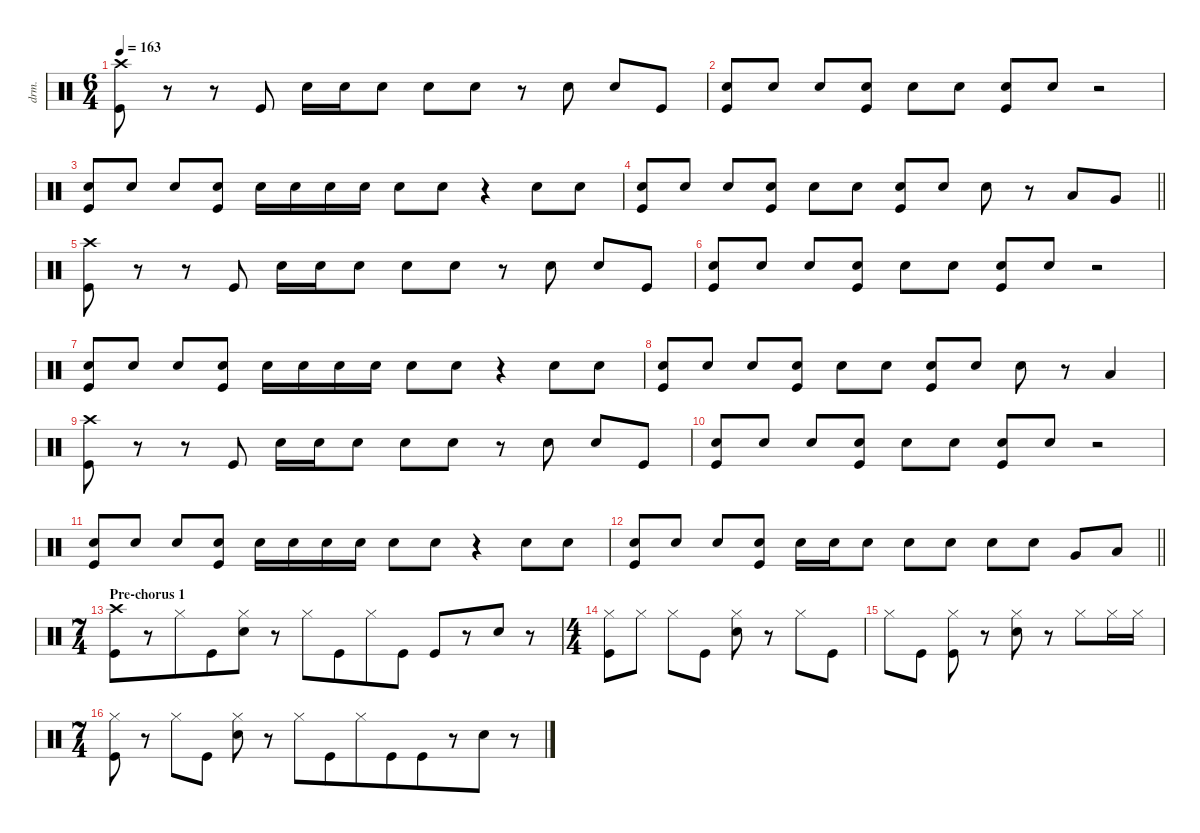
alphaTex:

\defaultSystemsLayout 4
\hideDynamics
\bracketExtendMode nobrackets
\otherSystemsTrackNameOrientation horizontal
\track ("Drums" "drm.") {instrument percussion}
\staff {score}
\articulation defaults
\ts (6 4)
\tempo 163
\clef neutral
\ks c
("Crash high (hit)" "Kick (hit)").8{dy f} r.8 r.8 "Kick (hit)".8 "Snare (hit) 2".16{dy p} "Snare (hit) 2".16 "Snare (hit) 2".8 "Snare (hit) 2".8 "Snare (hit) 2".8{dy f} r.8 "Snare (hit) 2".8{dy p} "Snare (hit) 2".8 "Kick (hit)".8{dy f} |
("Snare (hit) 2" "Kick (hit)").8{dy p} "Snare (hit) 2".8 "Snare (hit) 2".8 ("Snare (hit) 2" "Kick (hit)").8 "Snare (hit) 2".8 "Snare (hit) 2".8 ("Snare (hit) 2" "Kick (hit)").8 "Snare (hit) 2".8{dy f} r.2 |
("Snare (hit) 2" "Kick (hit)").8{dy p} "Snare (hit) 2".8 "Snare (hit) 2".8 ("Snare (hit) 2" "Kick (hit)").8 "Snare (hit) 2".16 "Snare (hit) 2".16 "Snare (hit) 2".16 "Snare (hit) 2".16 "Snare (hit) 2".8 "Snare (hit) 2".8{dy f} r.4 "Snare (hit) 2".8{dy p} "Snare (hit) 2".8 |
\barLineRight lightlight
("Snare (hit) 2" "Kick (hit)").8 "Snare (hit) 2".8 "Snare (hit) 2".8 ("Snare (hit) 2" "Kick (hit)").8 "Snare (hit) 2".8 "Snare (hit) 2".8 ("Snare (hit) 2" "Kick (hit)").8 "Snare (hit) 2".8{dy f} "Snare (hit) 2".8 r.8 "Low Tom (hit)".8{dy p} "Very Low Tom (hit)".8{dy f} |
\section ("" "")
("Crash high (hit)" "Kick (hit)").8 r.8 r.8 "Kick (hit)".8 "Snare (hit) 2".16{dy p} "Snare (hit) 2".16 "Snare (hit) 2".8 "Snare (hit) 2".8 "Snare (hit) 2".8{dy f} r.8 "Snare (hit) 2".8{dy p} "Snare (hit) 2".8 "Kick (hit)".8{dy f} |
("Snare (hit) 2" "Kick (hit)").8{dy p} "Snare (hit) 2".8 "Snare (hit) 2".8 ("Snare (hit) 2" "Kick (hit)").8 "Snare (hit) 2".8 "Snare (hit) 2".8 ("Snare (hit) 2" "Kick (hit)").8 "Snare (hit) 2".8{dy f} r.2 |
("Snare (hit) 2" "Kick (hit)").8{dy p} "Snare (hit) 2".8 "Snare (hit) 2".8 ("Snare (hit) 2" "Kick (hit)").8 "Snare (hit) 2".16 "Snare (hit) 2".16 "Snare (hit) 2".16 "Snare (hit) 2".16 "Snare (hit) 2".8 "Snare (hit) 2".8{dy f} r.4 "Snare (hit) 2".8{dy p} "Snare (hit) 2".8 |
("Snare (hit) 2" "Kick (hit)").8 "Snare (hit) 2".8 "Snare (hit) 2".8 ("Snare (hit) 2" "Kick (hit)").8 "Snare (hit) 2".8 "Snare (hit) 2".8 ("Snare (hit) 2" "Kick (hit)").8 "Snare (hit) 2".8{dy f} "Snare (hit) 2".8 r.8 "Low Tom (hit)".4{dy p} |
("Crash high (hit)" "Kick (hit)").8{dy f} r.8 r.8 "Kick (hit)".8 "Snare (hit) 2".16{dy p} "Snare (hit) 2".16 "Snare (hit) 2".8 "Snare (hit) 2".8 "Snare (hit) 2".8{dy f} r.8 "Snare (hit) 2".8{dy p} "Snare (hit) 2".8 "Kick (hit)".8{dy f} |
("Snare (hit) 2" "Kick (hit)").8{dy p} "Snare (hit) 2".8 "Snare (hit) 2".8 ("Snare (hit) 2" "Kick (hit)").8 "Snare (hit) 2".8 "Snare (hit) 2".8 ("Snare (hit) 2" "Kick (hit)").8 "Snare (hit) 2".8{dy f} r.2 |
("Snare (hit) 2" "Kick (hit)").8{dy p} "Snare (hit) 2".8 "Snare (hit) 2".8 ("Snare (hit) 2" "Kick (hit)").8 "Snare (hit) 2".16 "Snare (hit) 2".16 "Snare (hit) 2".16 "Snare (hit) 2".16 "Snare (hit) 2".8 "Snare (hit) 2".8{dy f} r.4 "Snare (hit) 2".8{dy p} "Snare (hit) 2".8 |
\barLineRight lightlight
("Snare (hit) 2" "Kick (hit)").8 "Snare (hit) 2".8 "Snare (hit) 2".8 ("Snare (hit) 2" "Kick (hit)").8 "Snare (hit) 2".16 "Snare (hit) 2".16 "Snare (hit) 2".8 "Snare (hit) 2".8{dy f} "Snare (hit) 2".8{dy ff} "Snare (hit) 2".8{dy p} "Snare (hit) 2".8 "Very Low Tom (hit)".8{dy f} "Low Floor Tom (hit)".8 |
\ts (7 4)
\beaming (8 6 4 4)
\section ("" "Pre-chorus 1")
("Crash high (hit)" "Kick (hit)").8 r.8 "Hi-Hat (closed)".8 "Kick (hit)".8 ("Hi-Hat (closed)" "Snare (hit) 2").8 r.8 "Hi-Hat (closed)".8 "Kick (hit)".8 "Hi-Hat (closed)".8 "Kick (hit)".8 "Kick (hit)".8 r.8 "Snare (hit) 2".8 r.8 |
\ts (4 4)
\beaming (8 2 2 2 2)
("Hi-Hat (closed)" "Kick (hit)").8 "Hi-Hat (closed)".8 "Hi-Hat (closed)".8 "Kick (hit)".8 ("Hi-Hat (closed)" "Snare (hit) 2").8 r.8 "Hi-Hat (closed)".8 "Kick (hit)".8 |
"Hi-Hat (closed)".8 "Kick (hit)".8 ("Hi-Hat (closed)" "Kick (hit)").8 r.8 ("Hi-Hat (closed)" "Snare (hit) 2").8 r.8 "Hi-Hat (closed)".8 "Hi-Hat (closed)".16{dy p} "Hi-Hat (closed)".16 |
\ts (7 4)
\beaming (8 2 2 2 8)
("Hi-Hat (closed)" "Kick (hit)").8{dy f} r.8 "Hi-Hat (closed)".8 "Kick (hit)".8 ("Hi-Hat (closed)" "Snare (hit) 2").8 r.8 "Hi-Hat (closed)".8 "Kick (hit)".8 "Hi-Hat (closed)".8 "Kick (hit)".8 "Kick (hit)".8 r.8 "Snare (hit) 2".8 r.8
